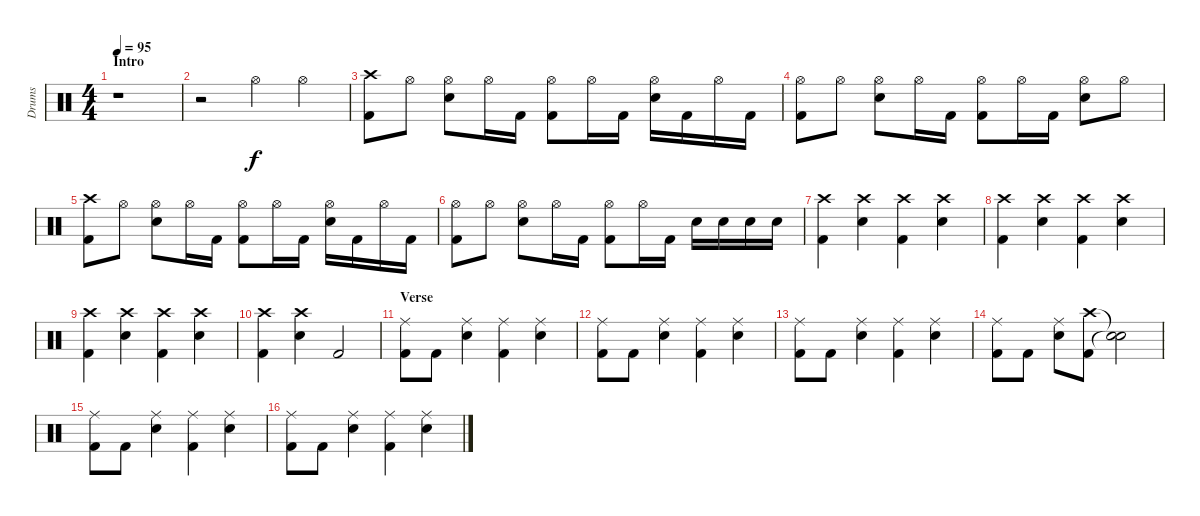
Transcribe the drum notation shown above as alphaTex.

\track ("Drums" "Drums") {instrument percussion}
\staff {score}
\articulation defaults
\ts (4 4)
\section ("" "Intro")
\tempo 95
\clef neutral
\ks c
r.1{dy f} |
r.2 "Hi-Hat (open)".4 "Hi-Hat (open)".4 |
("Crash high (hit)" "Kick (hit) 2").8 "Hi-Hat (open)".8 ("Hi-Hat (open)" "Electric Snare (hit)").8 "Hi-Hat (open)".16 "Kick (hit) 2".16 ("Hi-Hat (open)" "Kick (hit) 2").8 "Hi-Hat (open)".16 "Kick (hit) 2".16 ("Hi-Hat (open)" "Electric Snare (hit)").16 "Kick (hit) 2".16 "Hi-Hat (open)".16 "Kick (hit) 2".16 |
("Hi-Hat (open)" "Kick (hit) 2").8 "Hi-Hat (open)".8 ("Hi-Hat (open)" "Electric Snare (hit)").8 "Hi-Hat (open)".16 "Kick (hit) 2".16 ("Hi-Hat (open)" "Kick (hit) 2").8 "Hi-Hat (open)".16 "Kick (hit) 2".16 ("Hi-Hat (open)" "Electric Snare (hit)").8 "Hi-Hat (open)".8 |
("Crash high (hit)" "Kick (hit) 2").8 "Hi-Hat (open)".8 ("Hi-Hat (open)" "Electric Snare (hit)").8 "Hi-Hat (open)".16 "Kick (hit) 2".16 ("Hi-Hat (open)" "Kick (hit) 2").8 "Hi-Hat (open)".16 "Kick (hit) 2".16 ("Hi-Hat (open)" "Electric Snare (hit)").16 "Kick (hit) 2".16 "Hi-Hat (open)".16 "Kick (hit) 2".16 |
("Hi-Hat (open)" "Kick (hit) 2").8 "Hi-Hat (open)".8 ("Hi-Hat (open)" "Electric Snare (hit)").8 "Hi-Hat (open)".16 "Kick (hit) 2".16 ("Hi-Hat (open)" "Kick (hit) 2").8 "Hi-Hat (open)".16 "Kick (hit) 2".16 "Electric Snare (hit)".16 "Electric Snare (hit)".16 "Electric Snare (hit)".16 "Electric Snare (hit)".16 |
("Crash high (hit)" "Kick (hit) 2").4 ("Crash high (hit)" "Electric Snare (hit)").4 ("Crash high (hit)" "Kick (hit) 2").4 ("Crash high (hit)" "Electric Snare (hit)").4 |
("Crash high (hit)" "Kick (hit) 2").4 ("Crash high (hit)" "Electric Snare (hit)").4 ("Crash high (hit)" "Kick (hit) 2").4 ("Crash high (hit)" "Electric Snare (hit)").4 |
("Crash high (hit)" "Kick (hit) 2").4 ("Crash high (hit)" "Electric Snare (hit)").4 ("Crash high (hit)" "Kick (hit) 2").4 ("Crash high (hit)" "Electric Snare (hit)").4 |
("Crash high (hit)" "Kick (hit) 2").4 ("Crash high (hit)" "Electric Snare (hit)").4 "Kick (hit) 2".2 |
\section ("" "Verse")
("Ride (middle)" "Kick (hit) 2").8 "Kick (hit) 2".8 ("Ride (middle)" "Electric Snare (hit)").4 ("Ride (middle)" "Kick (hit) 2").4 ("Ride (middle)" "Electric Snare (hit)").4 |
("Ride (middle)" "Kick (hit) 2").8 "Kick (hit) 2".8 ("Ride (middle)" "Electric Snare (hit)").4 ("Ride (middle)" "Kick (hit) 2").4 ("Ride (middle)" "Electric Snare (hit)").4 |
("Ride (middle)" "Kick (hit) 2").8 "Kick (hit) 2".8 ("Ride (middle)" "Electric Snare (hit)").4 ("Ride (middle)" "Kick (hit) 2").4 ("Ride (middle)" "Electric Snare (hit)").4 |
("Ride (middle)" "Kick (hit) 2").8 "Kick (hit) 2".8 ("Ride (middle)" "Electric Snare (hit)").8 ("Crash high (hit)" "Kick (hit) 2").8 ("Snare (hit)"{t} "Snare (hit)"{t}).2 |
("Ride (middle)" "Kick (hit) 2").8 "Kick (hit) 2".8 ("Ride (middle)" "Electric Snare (hit)").4 ("Ride (middle)" "Kick (hit) 2").4 ("Ride (middle)" "Electric Snare (hit)").4 |
("Ride (middle)" "Kick (hit) 2").8 "Kick (hit) 2".8 ("Ride (middle)" "Electric Snare (hit)").4 ("Ride (middle)" "Kick (hit) 2").4 ("Ride (middle)" "Electric Snare (hit)").4
